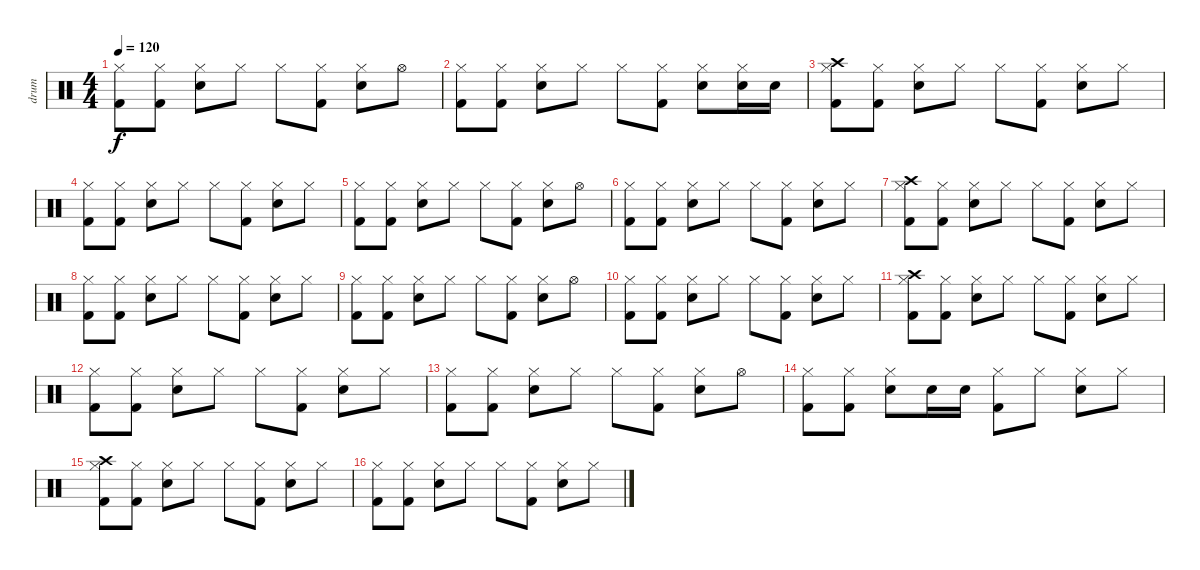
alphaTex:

\track ("drum" "drum") {instrument percussion}
\staff {score}
\articulation defaults
\ts (4 4)
\tempo 120
\clef neutral
\ks c
("Hi-Hat (closed)" "Kick (hit) 2").8{dy f} ("Hi-Hat (closed)" "Kick (hit) 2").8 ("Hi-Hat (closed)" "Electric Snare (hit)").8 "Hi-Hat (closed)".8 "Hi-Hat (closed)".8 ("Hi-Hat (closed)" "Kick (hit) 2").8 ("Hi-Hat (closed)" "Electric Snare (hit)").8 "Hi-Hat (open)".8 |
("Hi-Hat (closed)" "Kick (hit) 2").8 ("Hi-Hat (closed)" "Kick (hit) 2").8 ("Hi-Hat (closed)" "Electric Snare (hit)").8 "Hi-Hat (closed)".8 "Hi-Hat (closed)".8 ("Hi-Hat (closed)" "Kick (hit) 2").8 ("Hi-Hat (closed)" "Electric Snare (hit)").8 ("Hi-Hat (closed)" "Electric Snare (hit)").16 "Electric Snare (hit)".16 |
("Crash high (hit)" "Hi-Hat (closed)" "Kick (hit) 2").8 ("Hi-Hat (closed)" "Kick (hit) 2").8 ("Hi-Hat (closed)" "Electric Snare (hit)").8 "Hi-Hat (closed)".8 "Hi-Hat (closed)".8 ("Hi-Hat (closed)" "Kick (hit) 2").8 ("Hi-Hat (closed)" "Electric Snare (hit)").8 "Hi-Hat (closed)".8 |
("Hi-Hat (closed)" "Kick (hit) 2").8 ("Hi-Hat (closed)" "Kick (hit) 2").8 ("Hi-Hat (closed)" "Electric Snare (hit)").8 "Hi-Hat (closed)".8 "Hi-Hat (closed)".8 ("Hi-Hat (closed)" "Kick (hit) 2").8 ("Hi-Hat (closed)" "Electric Snare (hit)").8 "Hi-Hat (closed)".8 |
("Hi-Hat (closed)" "Kick (hit) 2").8 ("Hi-Hat (closed)" "Kick (hit) 2").8 ("Hi-Hat (closed)" "Electric Snare (hit)").8 "Hi-Hat (closed)".8 "Hi-Hat (closed)".8 ("Hi-Hat (closed)" "Kick (hit) 2").8 ("Hi-Hat (closed)" "Electric Snare (hit)").8 "Hi-Hat (open)".8 |
("Hi-Hat (closed)" "Kick (hit) 2").8 ("Hi-Hat (closed)" "Kick (hit) 2").8 ("Hi-Hat (closed)" "Electric Snare (hit)").8 "Hi-Hat (closed)".8 "Hi-Hat (closed)".8 ("Hi-Hat (closed)" "Kick (hit) 2").8 ("Hi-Hat (closed)" "Electric Snare (hit)").8 "Hi-Hat (closed)".8 |
("Crash high (hit)" "Hi-Hat (closed)" "Kick (hit) 2").8 ("Hi-Hat (closed)" "Kick (hit) 2").8 ("Hi-Hat (closed)" "Electric Snare (hit)").8 "Hi-Hat (closed)".8 "Hi-Hat (closed)".8 ("Hi-Hat (closed)" "Kick (hit) 2").8 ("Hi-Hat (closed)" "Electric Snare (hit)").8 "Hi-Hat (closed)".8 |
("Hi-Hat (closed)" "Kick (hit) 2").8 ("Hi-Hat (closed)" "Kick (hit) 2").8 ("Hi-Hat (closed)" "Electric Snare (hit)").8 "Hi-Hat (closed)".8 "Hi-Hat (closed)".8 ("Hi-Hat (closed)" "Kick (hit) 2").8 ("Hi-Hat (closed)" "Electric Snare (hit)").8 "Hi-Hat (closed)".8 |
("Hi-Hat (closed)" "Kick (hit) 2").8 ("Hi-Hat (closed)" "Kick (hit) 2").8 ("Hi-Hat (closed)" "Electric Snare (hit)").8 "Hi-Hat (closed)".8 "Hi-Hat (closed)".8 ("Hi-Hat (closed)" "Kick (hit) 2").8 ("Hi-Hat (closed)" "Electric Snare (hit)").8 "Hi-Hat (open)".8 |
("Hi-Hat (closed)" "Kick (hit) 2").8 ("Hi-Hat (closed)" "Kick (hit) 2").8 ("Hi-Hat (closed)" "Electric Snare (hit)").8 "Hi-Hat (closed)".8 "Hi-Hat (closed)".8 ("Hi-Hat (closed)" "Kick (hit) 2").8 ("Hi-Hat (closed)" "Electric Snare (hit)").8 "Hi-Hat (closed)".8 |
("Crash high (hit)" "Hi-Hat (closed)" "Kick (hit) 2").8 ("Hi-Hat (closed)" "Kick (hit) 2").8 ("Hi-Hat (closed)" "Electric Snare (hit)").8 "Hi-Hat (closed)".8 "Hi-Hat (closed)".8 ("Hi-Hat (closed)" "Kick (hit) 2").8 ("Hi-Hat (closed)" "Electric Snare (hit)").8 "Hi-Hat (closed)".8 |
("Hi-Hat (closed)" "Kick (hit) 2").8 ("Hi-Hat (closed)" "Kick (hit) 2").8 ("Hi-Hat (closed)" "Electric Snare (hit)").8 "Hi-Hat (closed)".8 "Hi-Hat (closed)".8 ("Hi-Hat (closed)" "Kick (hit) 2").8 ("Hi-Hat (closed)" "Electric Snare (hit)").8 "Hi-Hat (closed)".8 |
("Hi-Hat (closed)" "Kick (hit) 2").8 ("Hi-Hat (closed)" "Kick (hit) 2").8 ("Hi-Hat (closed)" "Electric Snare (hit)").8 "Hi-Hat (closed)".8 "Hi-Hat (closed)".8 ("Hi-Hat (closed)" "Kick (hit) 2").8 ("Hi-Hat (closed)" "Electric Snare (hit)").8 "Hi-Hat (open)".8 |
("Hi-Hat (closed)" "Kick (hit) 2").8 ("Hi-Hat (closed)" "Kick (hit) 2").8 ("Hi-Hat (closed)" "Electric Snare (hit)").8 "Electric Snare (hit)".16 "Electric Snare (hit)".16 ("Hi-Hat (closed)" "Kick (hit) 2").8 "Hi-Hat (closed)".8 ("Hi-Hat (closed)" "Electric Snare (hit)").8 "Hi-Hat (closed)".8 |
("Crash high (hit)" "Hi-Hat (closed)" "Kick (hit) 2").8 ("Hi-Hat (closed)" "Kick (hit) 2").8 ("Hi-Hat (closed)" "Electric Snare (hit)").8 "Hi-Hat (closed)".8 "Hi-Hat (closed)".8 ("Hi-Hat (closed)" "Kick (hit) 2").8 ("Hi-Hat (closed)" "Electric Snare (hit)").8 "Hi-Hat (closed)".8 |
("Hi-Hat (closed)" "Kick (hit) 2").8 ("Hi-Hat (closed)" "Kick (hit) 2").8 ("Hi-Hat (closed)" "Electric Snare (hit)").8 "Hi-Hat (closed)".8 "Hi-Hat (closed)".8 ("Hi-Hat (closed)" "Kick (hit) 2").8 ("Hi-Hat (closed)" "Electric Snare (hit)").8 "Hi-Hat (closed)".8
